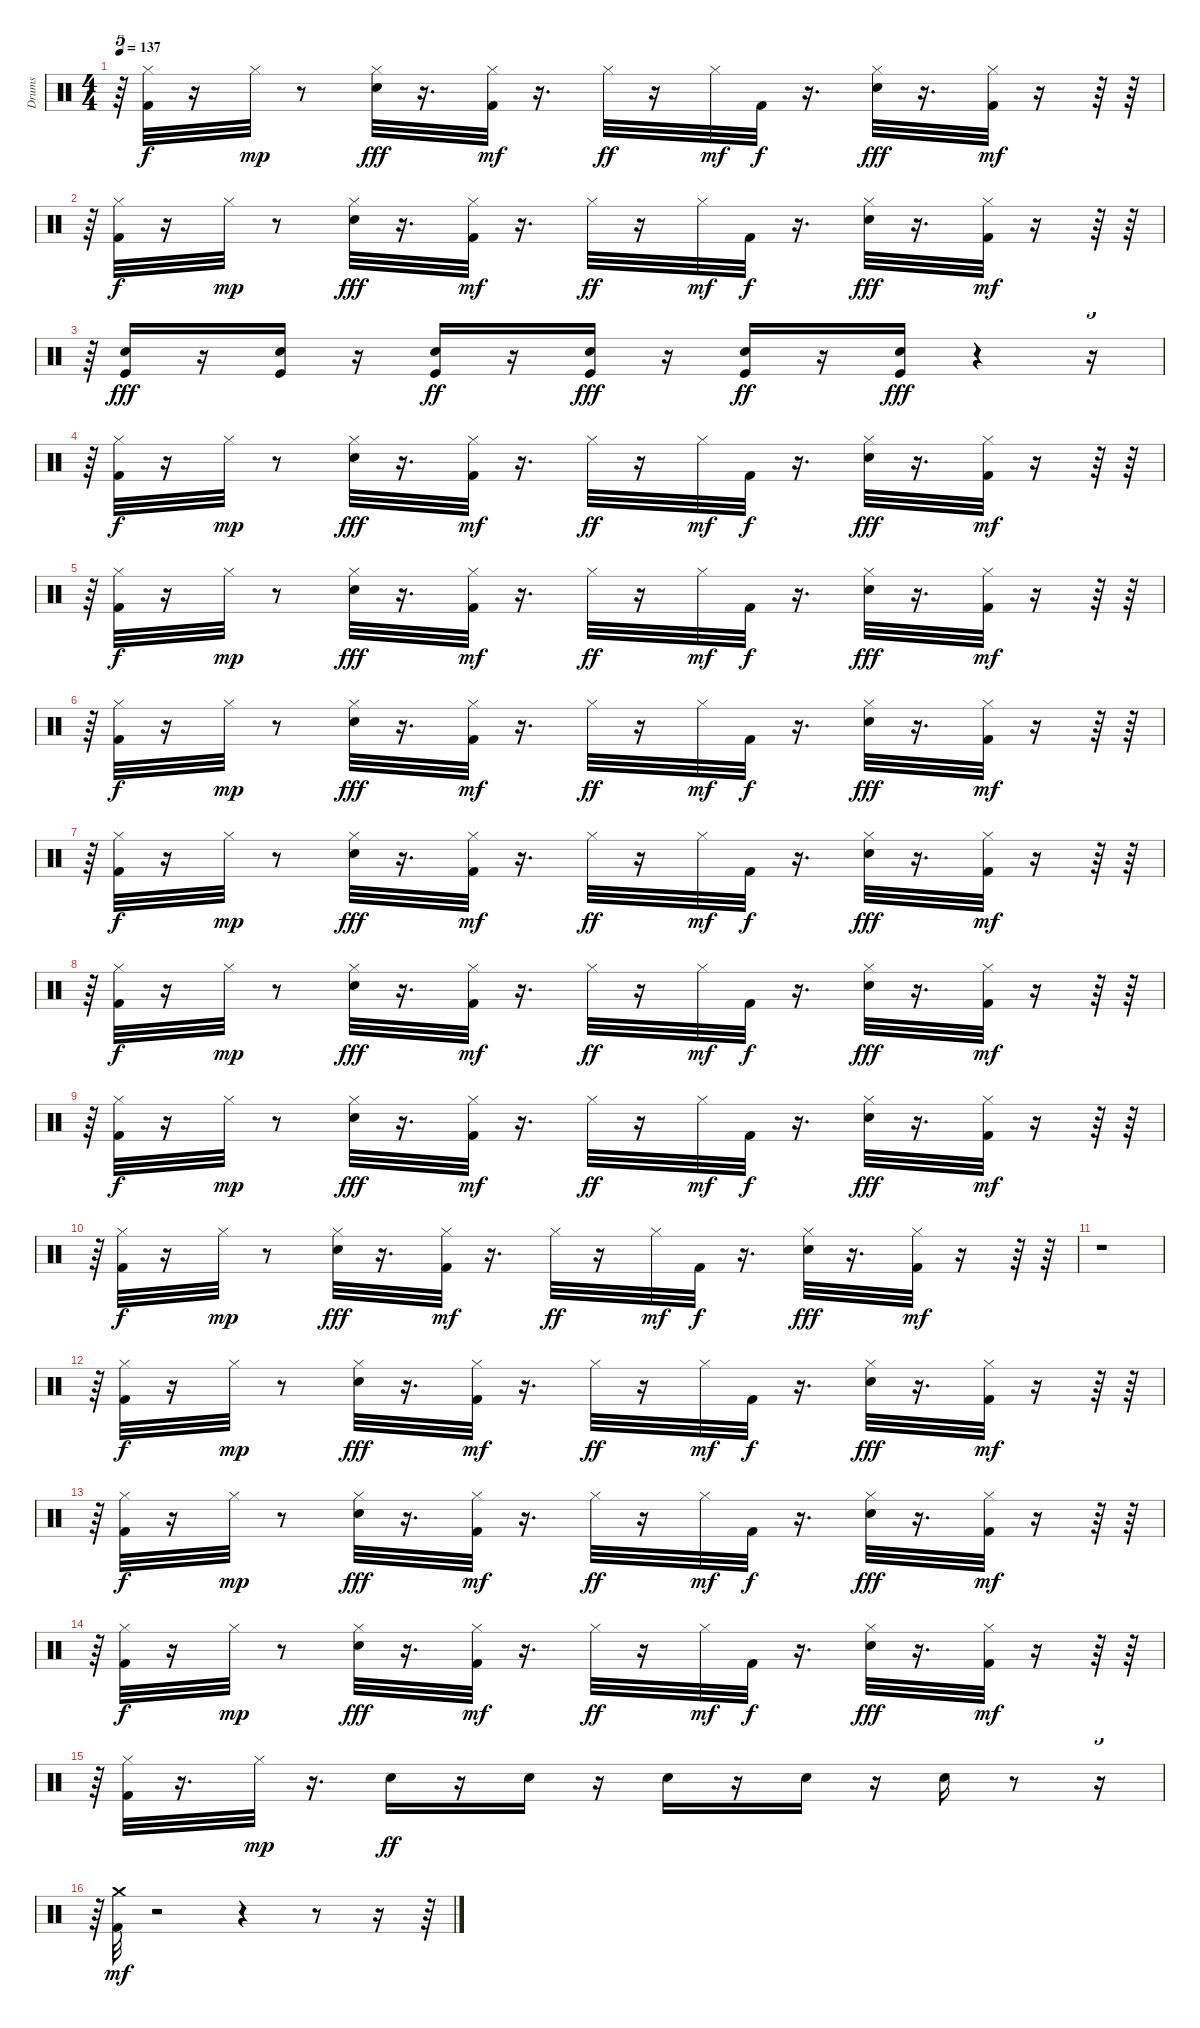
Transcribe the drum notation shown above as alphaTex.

\track ("Drums" "Drums") {instrument percussion}
\staff {score}
\articulation defaults
\ts (4 4)
\tempo 137
\clef neutral
\ks c
r.64{tu (5 4) dy mf} ("Hi-Hat (closed)" "Kick (hit) 2").32{dy f} r.16 "Hi-Hat (closed)".32{dy mp} r.8 ("Hi-Hat (closed)" "Snare (hit) 2").32{dy fff} r.16{d} ("Hi-Hat (closed)" "Kick (hit) 2").32{dy mf} r.16{d} "Hi-Hat (closed)".32{dy ff} r.16 "Hi-Hat (closed)".32{dy mf} "Kick (hit) 2".32{dy f} r.16{d} ("Hi-Hat (closed)" "Snare (hit) 2").32{dy fff} r.16{d} ("Hi-Hat (closed)" "Kick (hit) 2").32{dy mf} r.16 r.64 r.64 |
r.64{tu (5 4)} ("Hi-Hat (closed)" "Kick (hit) 2").32{dy f} r.16 "Hi-Hat (closed)".32{dy mp} r.8 ("Hi-Hat (closed)" "Snare (hit) 2").32{dy fff} r.16{d} ("Hi-Hat (closed)" "Kick (hit) 2").32{dy mf} r.16{d} "Hi-Hat (closed)".32{dy ff} r.16 "Hi-Hat (closed)".32{dy mf} "Kick (hit) 2".32{dy f} r.16{d} ("Hi-Hat (closed)" "Snare (hit) 2").32{dy fff} r.16{d} ("Hi-Hat (closed)" "Kick (hit) 2").32{dy mf} r.16 r.64 r.64 |
r.64{tu (5 4)} ("Kick (hit)" "Snare (hit) 2").16{dy fff} r.16 ("Kick (hit)" "Snare (hit) 2").16 r.16 ("Kick (hit)" "Snare (hit) 2").16{dy ff} r.16 ("Kick (hit)" "Snare (hit) 2").16{dy fff} r.16 ("Kick (hit)" "Snare (hit) 2").16{dy ff} r.16 ("Snare (hit) 2" "Kick (hit)").16{dy fff} r.4 r.16{tu (5 4)} |
r.64{tu (5 4)} ("Hi-Hat (closed)" "Kick (hit) 2").32{dy f} r.16 "Hi-Hat (closed)".32{dy mp} r.8 ("Hi-Hat (closed)" "Snare (hit) 2").32{dy fff} r.16{d} ("Hi-Hat (closed)" "Kick (hit) 2").32{dy mf} r.16{d} "Hi-Hat (closed)".32{dy ff} r.16 "Hi-Hat (closed)".32{dy mf} "Kick (hit) 2".32{dy f} r.16{d} ("Hi-Hat (closed)" "Snare (hit) 2").32{dy fff} r.16{d} ("Hi-Hat (closed)" "Kick (hit) 2").32{dy mf} r.16 r.64 r.64 |
r.64{tu (5 4)} ("Hi-Hat (closed)" "Kick (hit) 2").32{dy f} r.16 "Hi-Hat (closed)".32{dy mp} r.8 ("Hi-Hat (closed)" "Snare (hit) 2").32{dy fff} r.16{d} ("Hi-Hat (closed)" "Kick (hit) 2").32{dy mf} r.16{d} "Hi-Hat (closed)".32{dy ff} r.16 "Hi-Hat (closed)".32{dy mf} "Kick (hit) 2".32{dy f} r.16{d} ("Hi-Hat (closed)" "Snare (hit) 2").32{dy fff} r.16{d} ("Hi-Hat (closed)" "Kick (hit) 2").32{dy mf} r.16 r.64 r.64 |
r.64{tu (5 4)} ("Hi-Hat (closed)" "Kick (hit) 2").32{dy f} r.16 "Hi-Hat (closed)".32{dy mp} r.8 ("Hi-Hat (closed)" "Snare (hit) 2").32{dy fff} r.16{d} ("Hi-Hat (closed)" "Kick (hit) 2").32{dy mf} r.16{d} "Hi-Hat (closed)".32{dy ff} r.16 "Hi-Hat (closed)".32{dy mf} "Kick (hit) 2".32{dy f} r.16{d} ("Hi-Hat (closed)" "Snare (hit) 2").32{dy fff} r.16{d} ("Hi-Hat (closed)" "Kick (hit) 2").32{dy mf} r.16 r.64 r.64 |
r.64{tu (5 4)} ("Hi-Hat (closed)" "Kick (hit) 2").32{dy f} r.16 "Hi-Hat (closed)".32{dy mp} r.8 ("Hi-Hat (closed)" "Snare (hit) 2").32{dy fff} r.16{d} ("Hi-Hat (closed)" "Kick (hit) 2").32{dy mf} r.16{d} "Hi-Hat (closed)".32{dy ff} r.16 "Hi-Hat (closed)".32{dy mf} "Kick (hit) 2".32{dy f} r.16{d} ("Hi-Hat (closed)" "Snare (hit) 2").32{dy fff} r.16{d} ("Hi-Hat (closed)" "Kick (hit) 2").32{dy mf} r.16 r.64 r.64 |
r.64{tu (5 4)} ("Hi-Hat (closed)" "Kick (hit) 2").32{dy f} r.16 "Hi-Hat (closed)".32{dy mp} r.8 ("Hi-Hat (closed)" "Snare (hit) 2").32{dy fff} r.16{d} ("Hi-Hat (closed)" "Kick (hit) 2").32{dy mf} r.16{d} "Hi-Hat (closed)".32{dy ff} r.16 "Hi-Hat (closed)".32{dy mf} "Kick (hit) 2".32{dy f} r.16{d} ("Hi-Hat (closed)" "Snare (hit) 2").32{dy fff} r.16{d} ("Hi-Hat (closed)" "Kick (hit) 2").32{dy mf} r.16 r.64 r.64 |
r.64{tu (5 4)} ("Hi-Hat (closed)" "Kick (hit) 2").32{dy f} r.16 "Hi-Hat (closed)".32{dy mp} r.8 ("Hi-Hat (closed)" "Snare (hit) 2").32{dy fff} r.16{d} ("Hi-Hat (closed)" "Kick (hit) 2").32{dy mf} r.16{d} "Hi-Hat (closed)".32{dy ff} r.16 "Hi-Hat (closed)".32{dy mf} "Kick (hit) 2".32{dy f} r.16{d} ("Hi-Hat (closed)" "Snare (hit) 2").32{dy fff} r.16{d} ("Hi-Hat (closed)" "Kick (hit) 2").32{dy mf} r.16 r.64 r.64 |
r.64{tu (5 4)} ("Hi-Hat (closed)" "Kick (hit) 2").32{dy f} r.16 "Hi-Hat (closed)".32{dy mp} r.8 ("Hi-Hat (closed)" "Snare (hit) 2").32{dy fff} r.16{d} ("Hi-Hat (closed)" "Kick (hit) 2").32{dy mf} r.16{d} "Hi-Hat (closed)".32{dy ff} r.16 "Hi-Hat (closed)".32{dy mf} "Kick (hit) 2".32{dy f} r.16{d} ("Hi-Hat (closed)" "Snare (hit) 2").32{dy fff} r.16{d} ("Hi-Hat (closed)" "Kick (hit) 2").32{dy mf} r.16 r.64 r.64 |
r.1 |
r.64{tu (5 4)} ("Hi-Hat (closed)" "Kick (hit) 2").32{dy f} r.16 "Hi-Hat (closed)".32{dy mp} r.8 ("Hi-Hat (closed)" "Snare (hit) 2").32{dy fff} r.16{d} ("Hi-Hat (closed)" "Kick (hit) 2").32{dy mf} r.16{d} "Hi-Hat (closed)".32{dy ff} r.16 "Hi-Hat (closed)".32{dy mf} "Kick (hit) 2".32{dy f} r.16{d} ("Hi-Hat (closed)" "Snare (hit) 2").32{dy fff} r.16{d} ("Hi-Hat (closed)" "Kick (hit) 2").32{dy mf} r.16 r.64 r.64 |
r.64{tu (5 4)} ("Hi-Hat (closed)" "Kick (hit) 2").32{dy f} r.16 "Hi-Hat (closed)".32{dy mp} r.8 ("Hi-Hat (closed)" "Snare (hit) 2").32{dy fff} r.16{d} ("Hi-Hat (closed)" "Kick (hit) 2").32{dy mf} r.16{d} "Hi-Hat (closed)".32{dy ff} r.16 "Hi-Hat (closed)".32{dy mf} "Kick (hit) 2".32{dy f} r.16{d} ("Hi-Hat (closed)" "Snare (hit) 2").32{dy fff} r.16{d} ("Hi-Hat (closed)" "Kick (hit) 2").32{dy mf} r.16 r.64 r.64 |
r.64{tu (5 4)} ("Hi-Hat (closed)" "Kick (hit) 2").32{dy f} r.16 "Hi-Hat (closed)".32{dy mp} r.8 ("Hi-Hat (closed)" "Snare (hit) 2").32{dy fff} r.16{d} ("Hi-Hat (closed)" "Kick (hit) 2").32{dy mf} r.16{d} "Hi-Hat (closed)".32{dy ff} r.16 "Hi-Hat (closed)".32{dy mf} "Kick (hit) 2".32{dy f} r.16{d} ("Hi-Hat (closed)" "Snare (hit) 2").32{dy fff} r.16{d} ("Hi-Hat (closed)" "Kick (hit) 2").32{dy mf} r.16 r.64 r.64 |
r.64{tu (5 4)} ("Hi-Hat (closed)" "Kick (hit) 2").32 r.16{d} "Hi-Hat (closed)".32{dy mp} r.16{d} "Snare (hit) 2".16{dy ff} r.16 "Snare (hit) 2".16 r.16 "Snare (hit) 2".16 r.16 "Snare (hit) 2".16 r.16 "Snare (hit) 2".16 r.8 r.16{tu (5 4)} |
r.64{tu (5 4)} ("Crash medium (hit)" "Kick (hit) 2").32{dy mf} r.2 r.4 r.8 r.16 r.64
